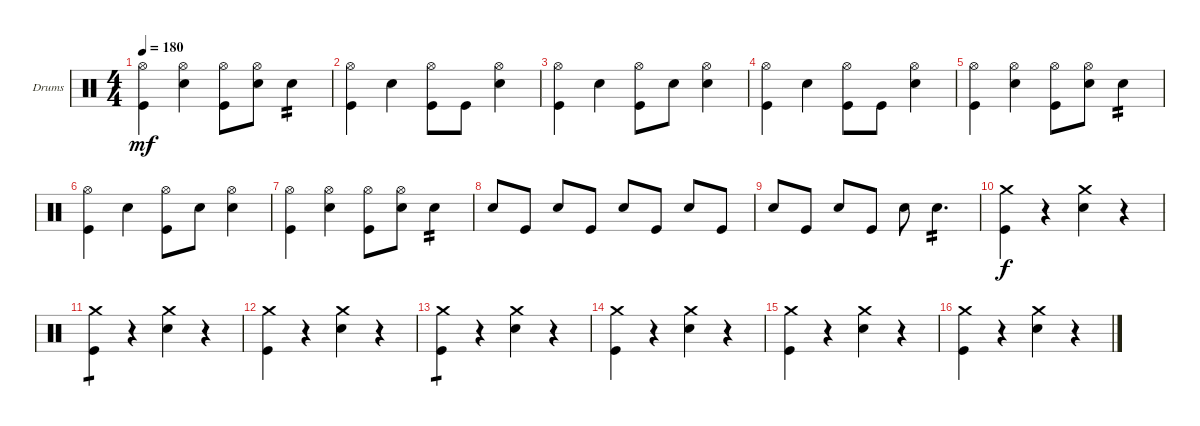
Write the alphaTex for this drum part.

\bracketExtendMode groupsimilarinstruments
\firstSystemTrackNameOrientation horizontal
\otherSystemsTrackNameOrientation horizontal
\track ("Drumkit" "Drums") {instrument percussion}
\staff {score}
\articulation defaults
\ts (4 4)
\tempo 180
\clef neutral
\scale
0.333333
\ks c
("Kick (hit)" "Hi-Hat (open)").4{dy mf} ("Snare (hit) 2" "Hi-Hat (open)").4 ("Kick (hit)" "Hi-Hat (open)").8 ("Snare (hit) 2" "Hi-Hat (open)").8 "Snare (hit) 2".4{tp 2} |
\scale
0.333333 ("Kick (hit)" "Hi-Hat (open)").4 "Snare (hit) 2".4 ("Kick (hit)" "Hi-Hat (open)").8 "Kick (hit)".8 ("Snare (hit) 2" "Hi-Hat (open)").4 |
\scale
0.333333 ("Kick (hit)" "Hi-Hat (open)").4 "Snare (hit) 2".4 ("Kick (hit)" "Hi-Hat (open)").8 "Snare (hit) 2".8 ("Snare (hit) 2" "Hi-Hat (open)").4 |
\scale
0.333333 ("Kick (hit)" "Hi-Hat (open)").4 "Snare (hit) 2".4 ("Kick (hit)" "Hi-Hat (open)").8 "Kick (hit)".8 ("Snare (hit) 2" "Hi-Hat (open)").4 |
\scale
0.333333 ("Kick (hit)" "Hi-Hat (open)").4 ("Snare (hit) 2" "Hi-Hat (open)").4 ("Kick (hit)" "Hi-Hat (open)").8 ("Snare (hit) 2" "Hi-Hat (open)").8 "Snare (hit) 2".4{tp 2} |
\scale
0.333333 ("Kick (hit)" "Hi-Hat (open)").4 "Snare (hit) 2".4 ("Kick (hit)" "Hi-Hat (open)").8 "Snare (hit) 2".8 ("Snare (hit) 2" "Hi-Hat (open)").4 |
\scale
0.333333 ("Kick (hit)" "Hi-Hat (open)").4 ("Snare (hit) 2" "Hi-Hat (open)").4 ("Kick (hit)" "Hi-Hat (open)").8 ("Snare (hit) 2" "Hi-Hat (open)").8 "Snare (hit) 2".4{tp 2} |
\scale
0.333333 "Snare (hit) 2".8 "Kick (hit)".8 "Snare (hit) 2".8 "Kick (hit)".8 "Snare (hit) 2".8 "Kick (hit)".8 "Snare (hit) 2".8 "Kick (hit)".8 |
\scale
0.333333 "Snare (hit) 2".8 "Kick (hit)".8 "Snare (hit) 2".8 "Kick (hit)".8 "Snare (hit) 2".8 "Snare (hit) 2".4{d tp 2} |
\scale
0.333333 ("Crash medium (hit)" "Kick (hit)").4{dy f} r.4 ("Crash medium (hit)" "Snare (hit) 2").4 r.4 |
\scale
0.333333 ("Crash medium (hit)" "Kick (hit)").4{tp 1} r.4 ("Crash medium (hit)" "Snare (hit) 2").4 r.4 |
\scale
0.333333 ("Crash medium (hit)" "Kick (hit)").4 r.4 ("Crash medium (hit)" "Snare (hit) 2").4 r.4 |
\scale
0.333333 ("Crash medium (hit)" "Kick (hit)").4{tp 1} r.4 ("Crash medium (hit)" "Snare (hit) 2").4 r.4 |
\scale
0.333333 ("Crash medium (hit)" "Kick (hit)").4 r.4 ("Crash medium (hit)" "Snare (hit) 2").4 r.4 |
\scale
0.333333 ("Crash medium (hit)" "Kick (hit)").4 r.4 ("Crash medium (hit)" "Snare (hit) 2").4 r.4 |
\scale
0.333333 ("Crash medium (hit)" "Kick (hit)").4 r.4 ("Crash medium (hit)" "Snare (hit) 2").4 r.4
